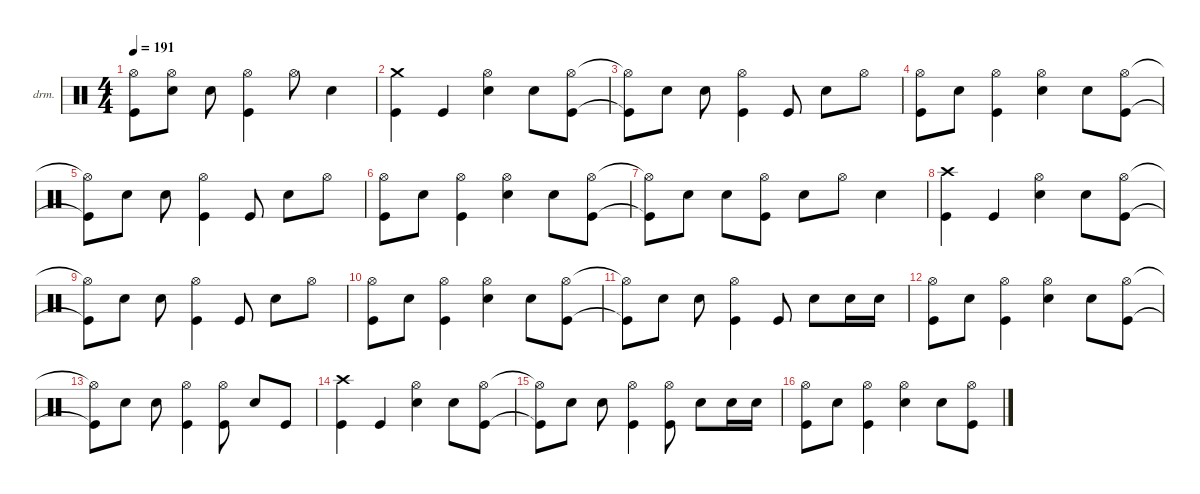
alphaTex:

\defaultSystemsLayout 4
\hideDynamics
\bracketExtendMode nobrackets
\firstSystemTrackNameOrientation horizontal
\otherSystemsTrackNameOrientation horizontal
\track ("Drumkit" "drm.") {instrument percussion}
\staff {score}
\articulation defaults
\ts (4 4)
\tempo 191
\clef neutral
\ks c
("Kick (hit)"{t} "Hi-Hat (open)"{t}).8{dy mf beam Down} ("Hi-Hat (open)" "Snare (hit) 2").8{dy f beam Down} "Snare (hit) 2".8{dy mf beam Down} ("Hi-Hat (open)" "Kick (hit)").4{beam Down} "Hi-Hat (open)".8{beam Down} "Snare (hit) 2".4{beam Down} |
("Kick (hit)" "Crash medium (hit)").4{dy f beam Down} "Kick (hit)".4{beam Up} ("Snare (hit) 2" "Hi-Hat (open)").4{beam Down} "Snare (hit) 2".8{beam Down} ("Kick (hit)" "Hi-Hat (open)").8{beam Down} |
("Kick (hit)"{t} "Hi-Hat (open)"{t}).8{beam Down} "Snare (hit) 2".8{dy mp beam Down} "Snare (hit) 2".8{dy mf beam Down} ("Kick (hit)" "Hi-Hat (open)").4{beam Down} "Kick (hit)".8{beam Up} "Snare (hit) 2".8{beam Down} "Hi-Hat (open)".8{beam Down} |
("Kick (hit)" "Hi-Hat (open)").8{beam Down} "Snare (hit) 2".8{beam Down} ("Kick (hit)" "Hi-Hat (open)").4{beam Down} ("Snare (hit) 2" "Hi-Hat (open)").4{beam Down} "Snare (hit) 2".8{beam Down} ("Kick (hit)" "Hi-Hat (open)").8{beam Down} |
("Kick (hit)"{t} "Hi-Hat (open)"{t}).8{beam Down} "Snare (hit) 2".8{beam Down} "Snare (hit) 2".8{beam Down} ("Hi-Hat (open)" "Kick (hit)").4{beam Down} "Kick (hit)".8{beam Up} "Snare (hit) 2".8{beam Down} "Hi-Hat (open)".8{beam Down} |
("Kick (hit)" "Hi-Hat (open)").8{dy mp beam Down} "Snare (hit) 2".8{beam Down} ("Kick (hit)" "Hi-Hat (open)").4{dy mf beam Down} ("Snare (hit) 2" "Hi-Hat (open)").4{beam Down} "Snare (hit) 2".8{dy mp beam Down} ("Kick (hit)" "Hi-Hat (open)").8{beam Down} |
("Kick (hit)"{t} "Hi-Hat (open)"{t}).8{beam Down} "Snare (hit) 2".8{dy mf beam Down} "Snare (hit) 2".8{beam Down} ("Hi-Hat (open)" "Kick (hit)").8{beam Down} "Snare (hit) 2".8{dy mp beam Down} "Hi-Hat (open)".8{beam Down} "Snare (hit) 2".4{dy mf beam Down} |
("Kick (hit)" "Crash high (hit)").4{beam Down} "Kick (hit)".4{beam Up} ("Snare (hit) 2" "Hi-Hat (open)").4{beam Down} "Snare (hit) 2".8{dy mp beam Down} ("Kick (hit)" "Hi-Hat (open)").8{beam Down} |
("Kick (hit)"{t} "Hi-Hat (open)"{t}).8{beam Down} "Snare (hit) 2".8{beam Down} "Snare (hit) 2".8{dy mf beam Down} ("Kick (hit)" "Hi-Hat (open)").4{beam Down} "Kick (hit)".8{beam Up} "Snare (hit) 2".8{beam Down} "Hi-Hat (open)".8{beam Down} |
("Kick (hit)" "Hi-Hat (open)").8{dy mp beam Down} "Snare (hit) 2".8{beam Down} ("Kick (hit)" "Hi-Hat (open)").4{beam Down} ("Snare (hit) 2" "Hi-Hat (open)").4{dy mf beam Down} "Snare (hit) 2".8{dy mp beam Down} ("Kick (hit)" "Hi-Hat (open)").8{beam Down} |
("Kick (hit)"{t} "Hi-Hat (open)"{t}).8{dy mf beam Down} "Snare (hit) 2".8{beam Down} "Snare (hit) 2".8{beam Down} ("Kick (hit)" "Hi-Hat (open)").4{beam Down} "Kick (hit)".8{beam Up} "Snare (hit) 2".8{beam Down} "Snare (hit) 2".16{dy mp beam Down} "Snare (hit) 2".16{beam Down} |
("Kick (hit)" "Hi-Hat (open)").8{dy mf beam Down} "Snare (hit) 2".8{beam Down} ("Kick (hit)" "Hi-Hat (open)").4{beam Down} ("Snare (hit) 2" "Hi-Hat (open)").4{beam Down} "Snare (hit) 2".8{beam Down} ("Kick (hit)" "Hi-Hat (open)").8{beam Down} |
("Kick (hit)"{t} "Hi-Hat (open)"{t}).8{beam Down} "Snare (hit) 2".8{beam Down} "Snare (hit) 2".8{beam Down} ("Kick (hit)" "Hi-Hat (open)").4{beam Down} ("Kick (hit)" "Hi-Hat (open)").8{dy mp beam Down} "Snare (hit) 2".8{beam Up} "Kick (hit)".8{beam Up} |
("Kick (hit)" "Crash high (hit)").4{dy mf beam Down} "Kick (hit)".4{beam Up} ("Snare (hit) 2" "Hi-Hat (open)").4{beam Down} "Snare (hit) 2".8{dy mp beam Down} ("Kick (hit)" "Hi-Hat (open)").8{beam Down} |
("Kick (hit)"{t} "Hi-Hat (open)"{t}).8{beam Down} "Snare (hit) 2".8{beam Down} "Snare (hit) 2".8{dy mf beam Down} ("Kick (hit)" "Hi-Hat (open)").4{beam Down} ("Kick (hit)" "Hi-Hat (open)").8{beam Down} "Snare (hit) 2".8{beam Down} "Snare (hit) 2".16{beam Down} "Snare (hit) 2".16{beam Down} |
("Kick (hit)" "Hi-Hat (open)").8{beam Down} "Snare (hit) 2".8{beam Down} ("Kick (hit)" "Hi-Hat (open)").4{beam Down} ("Snare (hit) 2" "Hi-Hat (open)").4{beam Down} "Snare (hit) 2".8{beam Down} ("Kick (hit)" "Hi-Hat (open)").8{beam Down}
